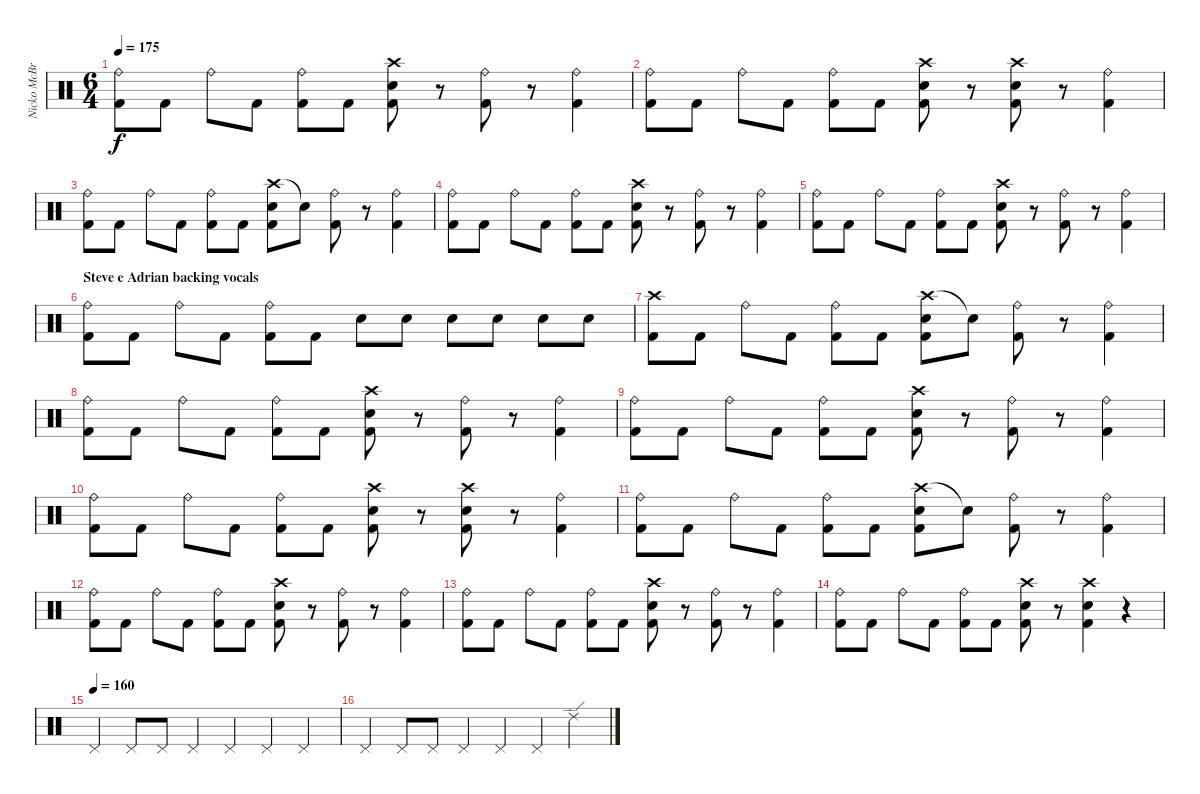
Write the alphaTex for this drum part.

\track ("Nicko McBrain" "Nicko McBr") {instrument percussion}
\staff {score}
\articulation defaults
\ts (6 4)
\tempo 175
\clef neutral
\ks c
("Ride (bell)" "Kick (hit) 2").8{dy f} "Kick (hit) 2".8 "Ride (bell)".8 "Kick (hit) 2".8 ("Ride (bell)" "Kick (hit) 2").8 "Kick (hit) 2".8 ("Snare (hit) 2" "Crash high (hit)" "Kick (hit) 2").8 r.8 ("Ride (bell)" "Kick (hit) 2").8 r.8 ("Ride (bell)" "Kick (hit) 2").4 |
("Ride (bell)" "Kick (hit) 2").8 "Kick (hit) 2".8 "Ride (bell)".8 "Kick (hit) 2".8 ("Ride (bell)" "Kick (hit) 2").8 "Kick (hit) 2".8 ("Crash high (hit)" "Snare (hit) 2" "Kick (hit) 2").8 r.8 ("Snare (hit) 2" "Crash high (hit)" "Kick (hit) 2").8 r.8 ("Ride (bell)" "Kick (hit) 2").4 |
("Ride (bell)" "Kick (hit) 2").8 "Kick (hit) 2".8 "Ride (bell)".8 "Kick (hit) 2".8 ("Ride (bell)" "Kick (hit) 2").8 "Kick (hit) 2".8 ("Crash high (hit)" "Snare (hit) 2" "Kick (hit) 2").8 "Snare (hit) 2"{t}.8 ("Ride (bell)" "Kick (hit) 2").8 r.8 ("Ride (bell)" "Kick (hit) 2").4 |
("Ride (bell)" "Kick (hit) 2").8 "Kick (hit) 2".8 "Ride (bell)".8 "Kick (hit) 2".8 ("Ride (bell)" "Kick (hit) 2").8 "Kick (hit) 2".8 ("Crash high (hit)" "Snare (hit) 2" "Kick (hit) 2").8 r.8 ("Ride (bell)" "Kick (hit) 2").8 r.8 ("Ride (bell)" "Kick (hit) 2").4 |
("Ride (bell)" "Kick (hit) 2").8 "Kick (hit) 2".8 "Ride (bell)".8 "Kick (hit) 2".8 ("Ride (bell)" "Kick (hit) 2").8 "Kick (hit) 2".8 ("Snare (hit) 2" "Crash high (hit)" "Kick (hit) 2").8 r.8 ("Ride (bell)" "Kick (hit) 2").8 r.8 ("Ride (bell)" "Kick (hit) 2").4 |
\section ("" "Steve e Adrian backing vocals")
("Ride (bell)" "Kick (hit) 2").8 "Kick (hit) 2".8 "Ride (bell)".8 "Kick (hit) 2".8 ("Ride (bell)" "Kick (hit) 2").8 "Kick (hit) 2".8 "Snare (hit) 2".8 "Snare (hit) 2".8 "Snare (hit) 2".8 "Snare (hit) 2".8 "Snare (hit) 2".8 "Snare (hit) 2".8 |
("Crash high (hit)" "Kick (hit) 2").8 "Kick (hit) 2".8 "Ride (bell)".8 "Kick (hit) 2".8 ("Ride (bell)" "Kick (hit) 2").8 "Kick (hit) 2".8 ("Crash high (hit)" "Snare (hit) 2" "Kick (hit) 2").8 "Snare (hit) 2"{t}.8 ("Ride (bell)" "Kick (hit) 2").8 r.8 ("Ride (bell)" "Kick (hit) 2").4 |
("Ride (bell)" "Kick (hit) 2").8 "Kick (hit) 2".8 "Ride (bell)".8 "Kick (hit) 2".8 ("Ride (bell)" "Kick (hit) 2").8 "Kick (hit) 2".8 ("Crash high (hit)" "Snare (hit) 2" "Kick (hit) 2").8 r.8 ("Ride (bell)" "Kick (hit) 2").8 r.8 ("Ride (bell)" "Kick (hit) 2").4 |
("Ride (bell)" "Kick (hit) 2").8 "Kick (hit) 2".8 "Ride (bell)".8 "Kick (hit) 2".8 ("Ride (bell)" "Kick (hit) 2").8 "Kick (hit) 2".8 ("Snare (hit) 2" "Crash high (hit)" "Kick (hit) 2").8 r.8 ("Ride (bell)" "Kick (hit) 2").8 r.8 ("Ride (bell)" "Kick (hit) 2").4 |
("Ride (bell)" "Kick (hit) 2").8 "Kick (hit) 2".8 "Ride (bell)".8 "Kick (hit) 2".8 ("Ride (bell)" "Kick (hit) 2").8 "Kick (hit) 2".8 ("Crash high (hit)" "Snare (hit) 2" "Kick (hit) 2").8 r.8 ("Snare (hit) 2" "Crash high (hit)" "Kick (hit) 2").8 r.8 ("Ride (bell)" "Kick (hit) 2").4 |
("Ride (bell)" "Kick (hit) 2").8 "Kick (hit) 2".8 "Ride (bell)".8 "Kick (hit) 2".8 ("Ride (bell)" "Kick (hit) 2").8 "Kick (hit) 2".8 ("Crash high (hit)" "Snare (hit) 2" "Kick (hit) 2").8 "Snare (hit) 2"{t}.8 ("Ride (bell)" "Kick (hit) 2").8 r.8 ("Ride (bell)" "Kick (hit) 2").4 |
("Ride (bell)" "Kick (hit) 2").8 "Kick (hit) 2".8 "Ride (bell)".8 "Kick (hit) 2".8 ("Ride (bell)" "Kick (hit) 2").8 "Kick (hit) 2".8 ("Crash high (hit)" "Snare (hit) 2" "Kick (hit) 2").8 r.8 ("Ride (bell)" "Kick (hit) 2").8 r.8 ("Ride (bell)" "Kick (hit) 2").4 |
("Ride (bell)" "Kick (hit) 2").8 "Kick (hit) 2".8 "Ride (bell)".8 "Kick (hit) 2".8 ("Ride (bell)" "Kick (hit) 2").8 "Kick (hit) 2".8 ("Snare (hit) 2" "Crash high (hit)" "Kick (hit) 2").8 r.8 ("Ride (bell)" "Kick (hit) 2").8 r.8 ("Ride (bell)" "Kick (hit) 2").4 |
("Ride (bell)" "Kick (hit) 2").8 "Kick (hit) 2".8 "Ride (bell)".8 "Kick (hit) 2".8 ("Ride (bell)" "Kick (hit) 2").8 "Kick (hit) 2".8 ("Crash high (hit)" "Snare (hit) 2" "Kick (hit) 2").8 r.8 ("Snare (hit) 2" "Crash high (hit)" "Kick (hit) 2").4 r.4 |
\tempo (160)
"Pedal Hi-Hat (hit)".4 "Pedal Hi-Hat (hit)".8 "Pedal Hi-Hat (hit)".8 "Pedal Hi-Hat (hit)".4 "Pedal Hi-Hat (hit)".4 "Pedal Hi-Hat (hit)".4 "Pedal Hi-Hat (hit)".4 |
"Pedal Hi-Hat (hit)".4 "Pedal Hi-Hat (hit)".8 "Pedal Hi-Hat (hit)".8 "Pedal Hi-Hat (hit)".4 "Pedal Hi-Hat (hit)".4 "Pedal Hi-Hat (hit)".4 "Ride (edge) 2".4
